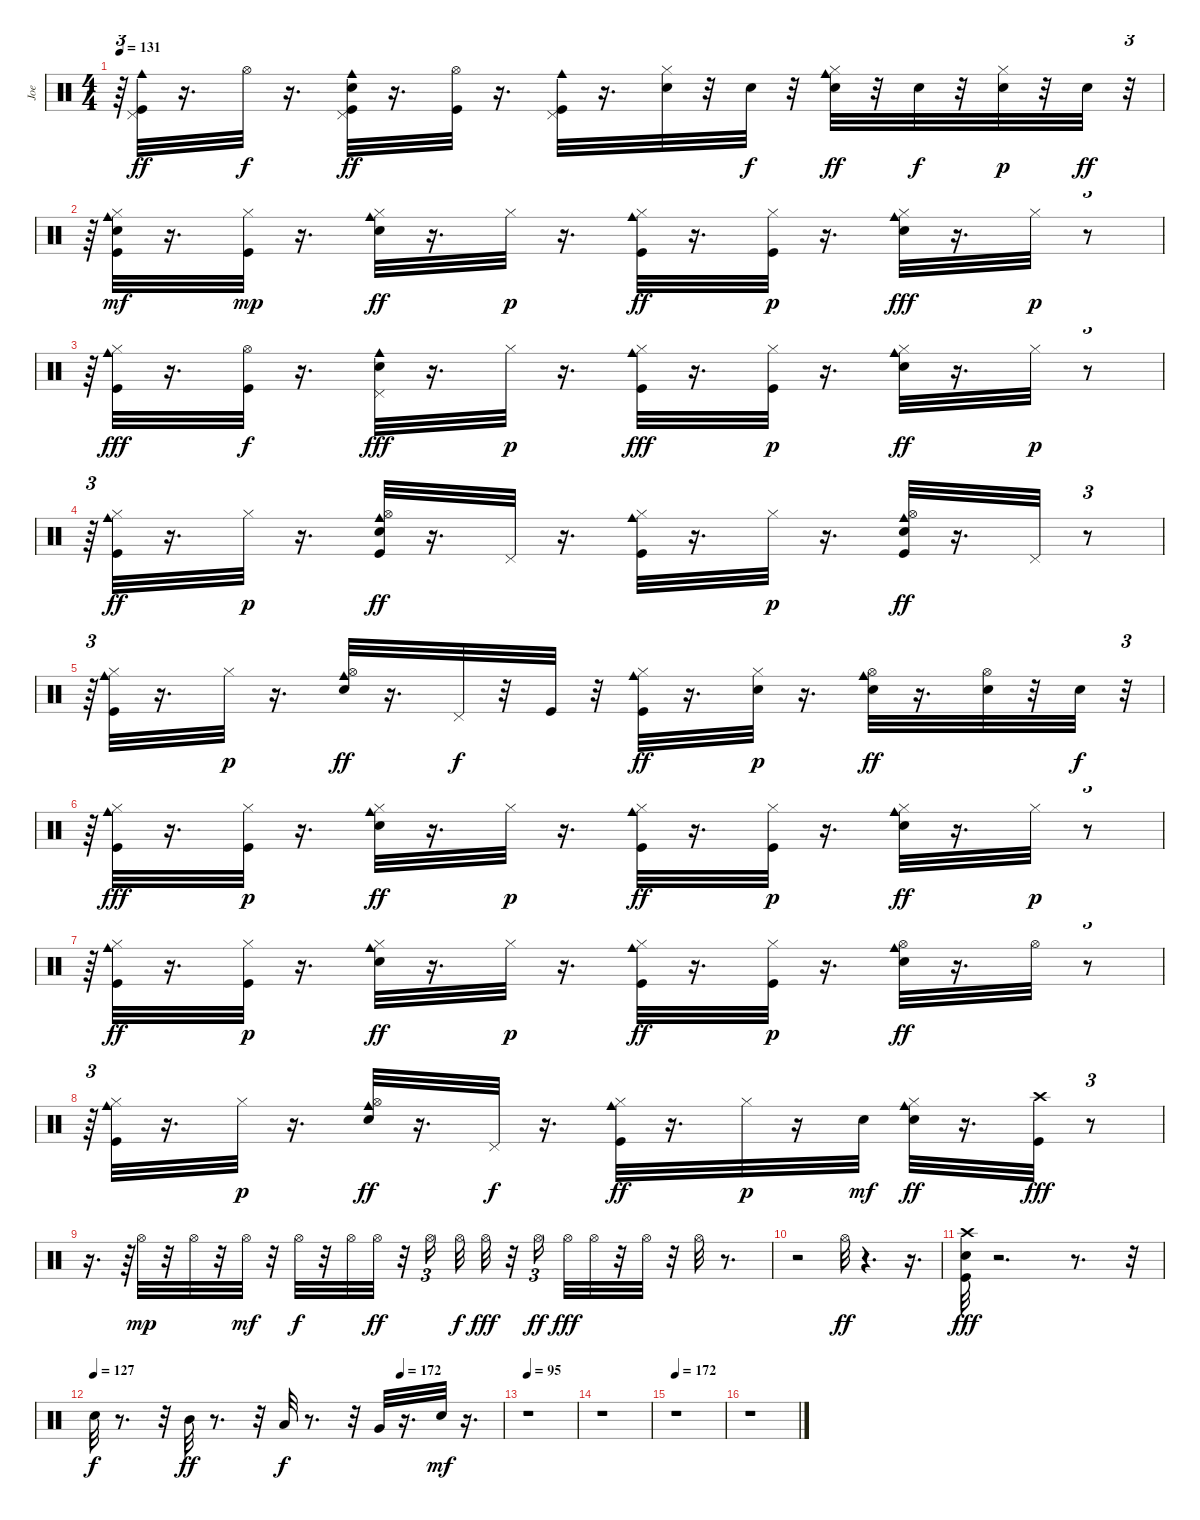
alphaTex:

\track ("Joe" "Joe") {instrument percussion}
\staff {score}
\articulation defaults
\ts (4 4)
\tempo 131
\clef neutral
\ks c
r.64{tu (3 2) dy f} ("Pedal Hi-Hat (hit)" "Cowbell medium (hit)" "Kick (hit)").32{dy ff} r.16{d} "Hi-Hat (open)".32{dy f} r.16{d} ("Pedal Hi-Hat (hit)" "Snare (hit) 2" "Cowbell medium (hit)" "Kick (hit)").32{dy ff} r.16{d} ("Hi-Hat (open)" "Kick (hit)").32 r.16{d} ("Cowbell medium (hit)" "Kick (hit)" "Pedal Hi-Hat (hit)").32 r.16{d} ("Hi-Hat (closed)" "Snare (hit) 2").32 r.32 "Snare (hit) 2".32{dy f} r.32 ("Hi-Hat (closed)" "Cowbell medium (hit)" "Snare (hit) 2").32{dy ff} r.32 "Snare (hit) 2".32{dy f} r.32 ("Snare (hit) 2" "Hi-Hat (closed)").32{dy p} r.32 "Snare (hit) 2".32{dy ff} r.32{tu (3 2)} |
r.64{tu (3 2)} ("Kick (hit)" "Cowbell medium (hit)" "Hi-Hat (closed)" "Snare (hit) 2").32{dy mf} r.16{d} ("Kick (hit)" "Hi-Hat (closed)").32{dy mp} r.16{d} ("Snare (hit) 2" "Hi-Hat (closed)" "Cowbell medium (hit)").32{dy ff} r.16{d} "Hi-Hat (closed)".32{dy p} r.16{d} ("Kick (hit)" "Cowbell medium (hit)" "Hi-Hat (closed)").32{dy ff} r.16{d} ("Kick (hit)" "Hi-Hat (closed)").32{dy p} r.16{d} ("Cowbell medium (hit)" "Snare (hit) 2" "Hi-Hat (closed)").32{dy fff} r.16{d} "Hi-Hat (closed)".32{dy p} r.8{tu (3 2)} |
r.64{tu (3 2)} ("Cowbell medium (hit)" "Hi-Hat (closed)" "Kick (hit)").32{dy fff} r.16{d} ("Hi-Hat (open)" "Kick (hit)").32{dy f} r.16{d} ("Cowbell medium (hit)" "Snare (hit) 2" "Pedal Hi-Hat (hit)").32{dy fff} r.16{d} "Hi-Hat (closed)".32{dy p} r.16{d} ("Kick (hit)" "Cowbell medium (hit)" "Hi-Hat (closed)").32{dy fff} r.16{d} ("Hi-Hat (closed)" "Kick (hit)").32{dy p} r.16{d} ("Cowbell medium (hit)" "Snare (hit) 2" "Hi-Hat (closed)").32{dy ff} r.16{d} "Hi-Hat (closed)".32{dy p} r.8{tu (3 2)} |
r.64{tu (3 2)} ("Kick (hit)" "Hi-Hat (closed)" "Cowbell medium (hit)").32{dy ff} r.16{d} "Hi-Hat (closed)".32{dy p} r.16{d} ("Kick (hit)" "Snare (hit) 2" "Cowbell medium (hit)" "Hi-Hat (open)").32{dy ff} r.16{d} "Pedal Hi-Hat (hit)".32 r.16{d} ("Cowbell medium (hit)" "Hi-Hat (closed)" "Kick (hit)").32 r.16{d} "Hi-Hat (closed)".32{dy p} r.16{d} ("Hi-Hat (open)" "Snare (hit) 2" "Cowbell medium (hit)" "Kick (hit)").32{dy ff} r.16{d} "Pedal Hi-Hat (hit)".32 r.8{tu (3 2)} |
r.64{tu (3 2)} ("Cowbell medium (hit)" "Kick (hit)" "Hi-Hat (closed)").32 r.16{d} "Hi-Hat (closed)".32{dy p} r.16{d} ("Snare (hit) 2" "Cowbell medium (hit)" "Hi-Hat (open)").32{dy ff} r.16{d} "Pedal Hi-Hat (hit)".32{dy f} r.32 "Kick (hit)".32 r.32 ("Cowbell medium (hit)" "Kick (hit)" "Hi-Hat (closed)").32{dy ff} r.16{d} ("Snare (hit) 2" "Hi-Hat (closed)").32{dy p} r.16{d} ("Hi-Hat (open)" "Cowbell medium (hit)" "Snare (hit) 2").32{dy ff} r.16{d} ("Hi-Hat (open)" "Snare (hit) 2").32 r.32 "Snare (hit) 2".32{dy f} r.32{tu (3 2)} |
r.64{tu (3 2)} ("Cowbell medium (hit)" "Kick (hit)" "Hi-Hat (closed)").32{dy fff} r.16{d} ("Kick (hit)" "Hi-Hat (closed)").32{dy p} r.16{d} ("Hi-Hat (closed)" "Cowbell medium (hit)" "Snare (hit) 2").32{dy ff} r.16{d} "Hi-Hat (closed)".32{dy p} r.16{d} ("Kick (hit)" "Hi-Hat (closed)" "Cowbell medium (hit)").32{dy ff} r.16{d} ("Kick (hit)" "Hi-Hat (closed)").32{dy p} r.16{d} ("Cowbell medium (hit)" "Hi-Hat (closed)" "Snare (hit) 2").32{dy ff} r.16{d} "Hi-Hat (closed)".32{dy p} r.8{tu (3 2)} |
r.64{tu (3 2)} ("Cowbell medium (hit)" "Kick (hit)" "Hi-Hat (closed)").32{dy ff} r.16{d} ("Kick (hit)" "Hi-Hat (closed)").32{dy p} r.16{d} ("Snare (hit) 2" "Cowbell medium (hit)" "Hi-Hat (closed)").32{dy ff} r.16{d} "Hi-Hat (closed)".32{dy p} r.16{d} ("Kick (hit)" "Hi-Hat (closed)" "Cowbell medium (hit)").32{dy ff} r.16{d} ("Kick (hit)" "Hi-Hat (closed)").32{dy p} r.16{d} ("Snare (hit) 2" "Cowbell medium (hit)" "Hi-Hat (open)").32{dy ff} r.16{d} "Hi-Hat (open)".32 r.8{tu (3 2)} |
r.64{tu (3 2)} ("Cowbell medium (hit)" "Kick (hit)" "Hi-Hat (closed)").32 r.16{d} "Hi-Hat (closed)".32{dy p} r.16{d} ("Snare (hit) 2" "Cowbell medium (hit)" "Hi-Hat (open)").32{dy ff} r.16{d} "Pedal Hi-Hat (hit)".32{dy f} r.16{d} ("Cowbell medium (hit)" "Hi-Hat (closed)" "Kick (hit)").32{dy ff} r.16{d} "Hi-Hat (closed)".32{dy p} r.16 "Snare (hit) 2".32{dy mf} ("Hi-Hat (closed)" "Snare (hit) 2" "Cowbell medium (hit)").32{dy ff} r.16{d} ("Crash high (hit)" "Kick (hit)").32{dy fff} r.8{tu (3 2)} |
r.16{d} r.64{tu (3 2)} "Hi-Hat (open)".32{dy mp} r.32 "Hi-Hat (open)".32 r.32 "Hi-Hat (open)".32{dy mf} r.32 "Hi-Hat (open)".32{dy f} r.32 "Hi-Hat (open)".32 "Hi-Hat (open)".32{dy ff} r.32 "Hi-Hat (open)".16{tu (3 2)} "Hi-Hat (open)".32{dy f} "Hi-Hat (open)".32{dy fff} r.32 "Hi-Hat (open)".16{tu (3 2) dy ff beam splitsecondary} "Hi-Hat (open)".32{dy fff} "Hi-Hat (open)".32 r.32 "Hi-Hat (open)".32 r.32 "Hi-Hat (open)".32 r.8{d} |
r.2 "Hi-Hat (open)".32{dy ff} r.4{d} r.16{d} |
("Kick (hit)" "Snare (hit) 2" "Crash high (hit)").32{dy fff} r.2{d} r.8{d} r.32 |
\tempo (172 0.75)
\tempo (127)
"Snare (hit) 2".32{dy f} r.8{d} r.32 "Mid Tom (hit)".32{dy ff} r.8{d} r.32 "Low Tom (hit)".32{dy f} r.8{d} r.32 "Very Low Tom (hit)".32 r.16{d} "Snare (hit) 2".32{dy mf} r.16{d} |
\tempo 95
r.1 |
r.1 |
\tempo 172
r.1 |
r.1
